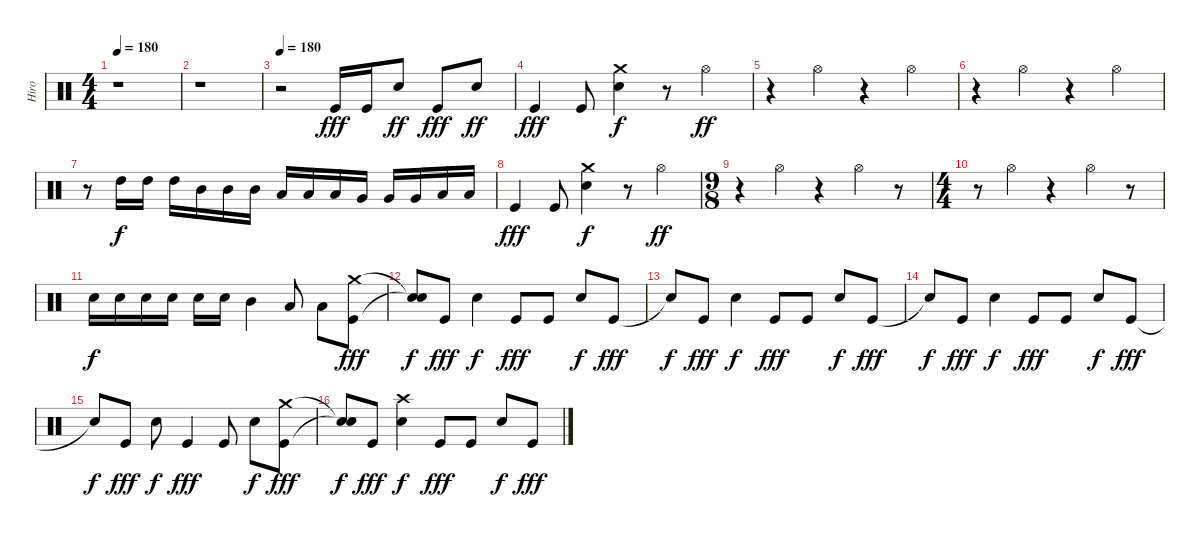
\track ("Hiro" "Hiro") {instrument percussion}
\staff {score}
\articulation defaults
\ts (4 4)
\tempo 180
\clef neutral
\ks c
r.1{dy fff} |
r.1 |
\tempo 180
r.2 "Kick (hit)".16 "Kick (hit)".16 "Metronome (bell)".8{dy ff} "Kick (hit)".8{dy fff} "Metronome (bell)".8{dy ff} |
"Kick (hit)".4{dy fff} "Kick (hit)".8 ("Electric Snare (hit)" "Crash medium (hit)").4{dy f} r.8 "Hi-Hat (open)".4{dy ff} |
r.4 "Hi-Hat (open)".4 r.4 "Hi-Hat (open)".4 |
r.4 "Hi-Hat (open)".4 r.4 "Hi-Hat (open)".4 |
r.8 "High Tom (hit)".16{dy f} "High Tom (hit)".16 "High Tom (hit)".16 "Mid Tom (hit)".16 "Mid Tom (hit)".16 "Mid Tom (hit)".16 "Low Tom (hit)".16 "Low Tom (hit)".16 "Low Tom (hit)".16 "Very Low Tom (hit)".16 "Very Low Tom (hit)".16 "Very Low Tom (hit)".16 "Low Floor Tom (hit)".16 "Low Floor Tom (hit)".16 |
"Kick (hit)".4{dy fff} "Kick (hit)".8 ("Electric Snare (hit)" "Crash medium (hit)").4{dy f} r.8 "Hi-Hat (open)".4{dy ff} |
\ts (9 8)
r.4 "Hi-Hat (open)".4 r.4 "Hi-Hat (open)".4 r.8 |
\ts (4 4)
r.8 "Hi-Hat (open)".4 r.4 "Hi-Hat (open)".4 r.8 |
"Electric Snare (hit)".16{dy f} "Electric Snare (hit)".16 "Electric Snare (hit)".16 "Electric Snare (hit)".16 "Electric Snare (hit)".16 "Electric Snare (hit)".16 "Mid Tom (hit)".4 "Low Tom (hit)".8 "Low Floor Tom (hit)".8 ("Crash medium (hit)" "Kick (hit)").8{dy fff} |
("Snare (hit)"{t} "Snare (hit)"{t}).8{dy f} "Kick (hit)".8{dy fff} "Electric Snare (hit)".4{dy f} "Kick (hit)".8{dy fff} "Kick (hit)".8 "Electric Snare (hit)".8{dy f} "Kick (hit)".8{dy fff} |
"Snare (hit)"{t}.8{dy f} "Kick (hit)".8{dy fff} "Electric Snare (hit)".4{dy f} "Kick (hit)".8{dy fff} "Kick (hit)".8 "Electric Snare (hit)".8{dy f} "Kick (hit)".8{dy fff} |
"Snare (hit)"{t}.8{dy f} "Kick (hit)".8{dy fff} "Electric Snare (hit)".4{dy f} "Kick (hit)".8{dy fff} "Kick (hit)".8 "Electric Snare (hit)".8{dy f} "Kick (hit)".8{dy fff} |
"Snare (hit)"{t}.8{dy f} "Kick (hit)".8{dy fff} "Electric Snare (hit)".8{dy f} "Kick (hit)".4{dy fff} "Kick (hit)".8 "Electric Snare (hit)".8{dy f} ("Crash medium (hit)" "Kick (hit)").8{dy fff} |
("Snare (hit)"{t} "Snare (hit)"{t}).8{dy f} "Kick (hit)".8{dy fff} ("Electric Snare (hit)" "Crash high (hit)").4{dy f} "Kick (hit)".8{dy fff} "Kick (hit)".8 "Electric Snare (hit)".8{dy f} "Kick (hit)".8{dy fff}
